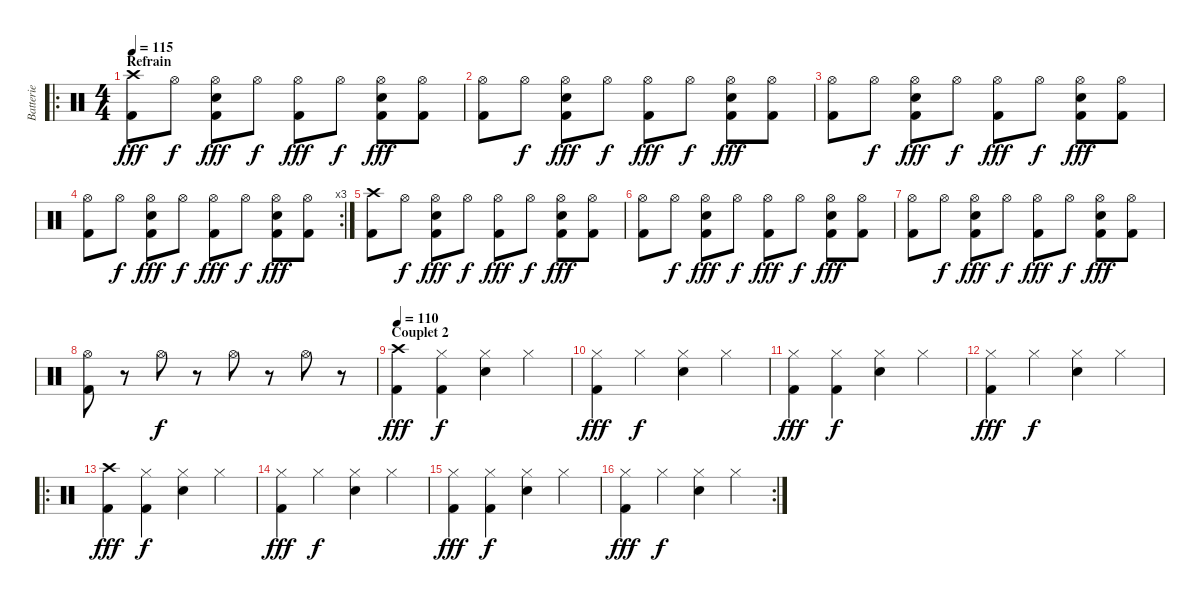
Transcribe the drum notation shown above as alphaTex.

\track ("Batterie" "Batterie") {instrument percussion}
\staff {score}
\articulation defaults
\ro
\ts (4 4)
\section ("" "Refrain")
\tempo 115
\clef neutral
\ks c
("Crash high (hit)" "Kick (hit) 2").8{dy fff} "Hi-Hat (open)".8{dy f} ("Hi-Hat (open)" "Kick (hit) 2" "Electric Snare (hit)").8{dy fff} "Hi-Hat (open)".8{dy f} ("Hi-Hat (open)" "Kick (hit) 2").8{dy fff} "Hi-Hat (open)".8{dy f} ("Hi-Hat (open)" "Kick (hit) 2" "Electric Snare (hit)").8{dy fff} ("Hi-Hat (open)" "Kick (hit) 2").8 |
("Hi-Hat (open)" "Kick (hit) 2").8 "Hi-Hat (open)".8{dy f} ("Hi-Hat (open)" "Kick (hit) 2" "Electric Snare (hit)").8{dy fff} "Hi-Hat (open)".8{dy f} ("Hi-Hat (open)" "Kick (hit) 2").8{dy fff} "Hi-Hat (open)".8{dy f} ("Hi-Hat (open)" "Kick (hit) 2" "Electric Snare (hit)").8{dy fff} ("Hi-Hat (open)" "Kick (hit) 2").8 |
("Hi-Hat (open)" "Kick (hit) 2").8 "Hi-Hat (open)".8{dy f} ("Hi-Hat (open)" "Kick (hit) 2" "Electric Snare (hit)").8{dy fff} "Hi-Hat (open)".8{dy f} ("Hi-Hat (open)" "Kick (hit) 2").8{dy fff} "Hi-Hat (open)".8{dy f} ("Hi-Hat (open)" "Kick (hit) 2" "Electric Snare (hit)").8{dy fff} ("Hi-Hat (open)" "Kick (hit) 2").8 |
\rc 3
("Hi-Hat (open)" "Kick (hit) 2").8 "Hi-Hat (open)".8{dy f} ("Hi-Hat (open)" "Kick (hit) 2" "Electric Snare (hit)").8{dy fff} "Hi-Hat (open)".8{dy f} ("Hi-Hat (open)" "Kick (hit) 2").8{dy fff} "Hi-Hat (open)".8{dy f} ("Hi-Hat (open)" "Kick (hit) 2" "Electric Snare (hit)").8{dy fff} ("Hi-Hat (open)" "Kick (hit) 2").8 |
("Crash high (hit)" "Kick (hit) 2").8 "Hi-Hat (open)".8{dy f} ("Hi-Hat (open)" "Kick (hit) 2" "Electric Snare (hit)").8{dy fff} "Hi-Hat (open)".8{dy f} ("Hi-Hat (open)" "Kick (hit) 2").8{dy fff} "Hi-Hat (open)".8{dy f} ("Hi-Hat (open)" "Kick (hit) 2" "Electric Snare (hit)").8{dy fff} ("Hi-Hat (open)" "Kick (hit) 2").8 |
("Hi-Hat (open)" "Kick (hit) 2").8 "Hi-Hat (open)".8{dy f} ("Hi-Hat (open)" "Kick (hit) 2" "Electric Snare (hit)").8{dy fff} "Hi-Hat (open)".8{dy f} ("Hi-Hat (open)" "Kick (hit) 2").8{dy fff} "Hi-Hat (open)".8{dy f} ("Hi-Hat (open)" "Kick (hit) 2" "Electric Snare (hit)").8{dy fff} ("Hi-Hat (open)" "Kick (hit) 2").8 |
("Hi-Hat (open)" "Kick (hit) 2").8 "Hi-Hat (open)".8{dy f} ("Hi-Hat (open)" "Kick (hit) 2" "Electric Snare (hit)").8{dy fff} "Hi-Hat (open)".8{dy f} ("Hi-Hat (open)" "Kick (hit) 2").8{dy fff} "Hi-Hat (open)".8{dy f} ("Hi-Hat (open)" "Kick (hit) 2" "Electric Snare (hit)").8{dy fff} ("Hi-Hat (open)" "Kick (hit) 2").8 |
("Hi-Hat (open)" "Kick (hit) 2").8 r.8 "Hi-Hat (open)".8{dy f} r.8 "Hi-Hat (open)".8 r.8 "Hi-Hat (open)".8 r.8 |
\section ("" "Couplet 2")
\tempo 110
("Crash high (hit)" "Kick (hit) 2").4{dy fff} ("Hi-Hat (closed)" "Kick (hit) 2").4{dy f} ("Hi-Hat (closed)" "Electric Snare (hit)").4 "Hi-Hat (closed)".4 |
("Hi-Hat (closed)" "Kick (hit) 2").4{dy fff} "Hi-Hat (closed)".4{dy f} ("Hi-Hat (closed)" "Electric Snare (hit)").4 "Hi-Hat (closed)".4 |
("Hi-Hat (closed)" "Kick (hit) 2").4{dy fff} ("Hi-Hat (closed)" "Kick (hit) 2").4{dy f} ("Hi-Hat (closed)" "Electric Snare (hit)").4 "Hi-Hat (closed)".4 |
("Hi-Hat (closed)" "Kick (hit) 2").4{dy fff} "Hi-Hat (closed)".4{dy f} ("Hi-Hat (closed)" "Electric Snare (hit)").4 "Hi-Hat (closed)".4 |
\ro
("Crash high (hit)" "Kick (hit) 2").4{dy fff} ("Hi-Hat (closed)" "Kick (hit) 2").4{dy f} ("Hi-Hat (closed)" "Electric Snare (hit)").4 "Hi-Hat (closed)".4 |
("Hi-Hat (closed)" "Kick (hit) 2").4{dy fff} "Hi-Hat (closed)".4{dy f} ("Hi-Hat (closed)" "Electric Snare (hit)").4 "Hi-Hat (closed)".4 |
("Hi-Hat (closed)" "Kick (hit) 2").4{dy fff} ("Hi-Hat (closed)" "Kick (hit) 2").4{dy f} ("Hi-Hat (closed)" "Electric Snare (hit)").4 "Hi-Hat (closed)".4 |
\rc 2
("Hi-Hat (closed)" "Kick (hit) 2").4{dy fff} "Hi-Hat (closed)".4{dy f} ("Hi-Hat (closed)" "Electric Snare (hit)").4 "Hi-Hat (closed)".4
